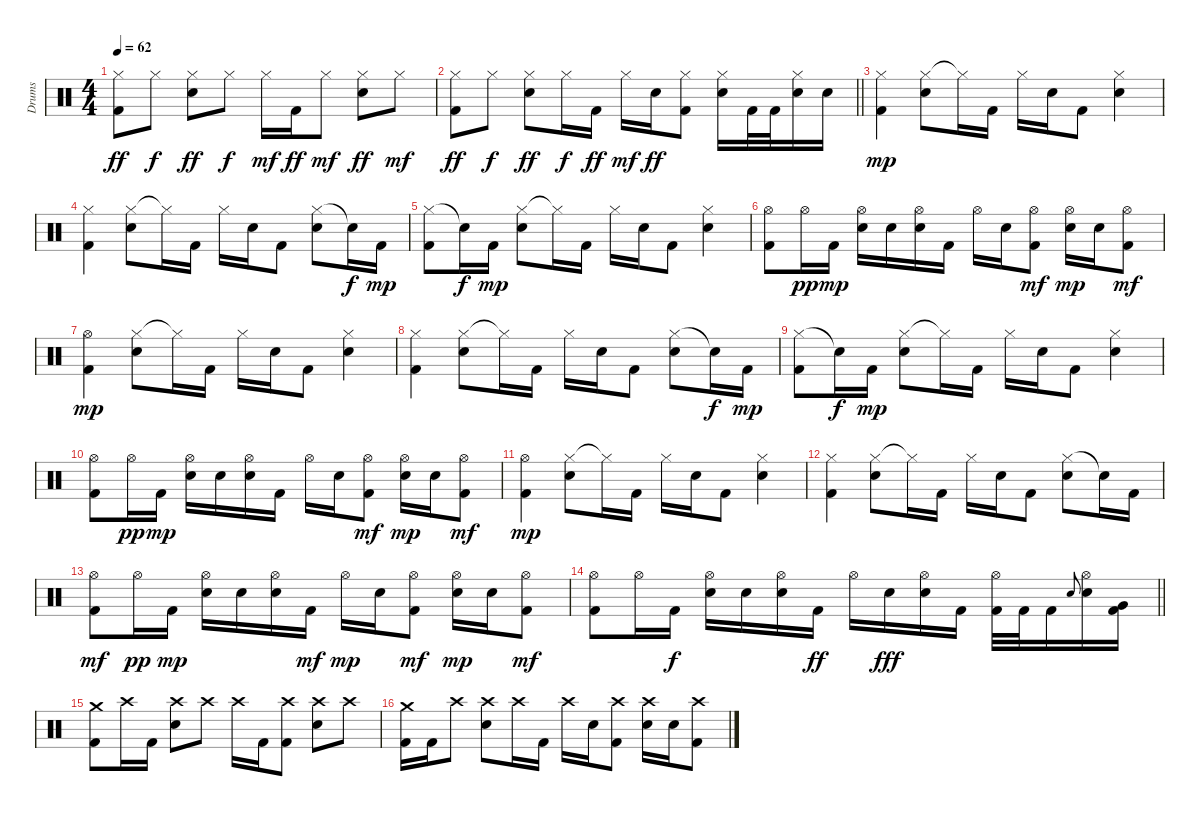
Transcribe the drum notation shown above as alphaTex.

\track ("Drums" "Drums") {instrument percussion}
\staff {score}
\articulation defaults
\ts (4 4)
\tempo 62
\clef neutral
\ks c
("Hi-Hat (closed)" "Kick (hit) 2").8{dy ff} "Hi-Hat (closed)".8{dy f} ("Hi-Hat (closed)" "Snare (hit) 2").8{dy ff} "Hi-Hat (closed)".8{dy f} "Hi-Hat (closed)".16{dy mf} "Kick (hit) 2".16{dy ff} "Hi-Hat (closed)".8{dy mf} ("Hi-Hat (closed)" "Snare (hit) 2").8{dy ff} "Hi-Hat (closed)".8{dy mf} |
\barLineRight lightlight
("Hi-Hat (closed)" "Kick (hit) 2").8{dy ff} "Hi-Hat (closed)".8{dy f} ("Hi-Hat (closed)" "Snare (hit) 2").8{dy ff} "Hi-Hat (closed)".16{dy f} "Kick (hit) 2".16{dy ff} "Hi-Hat (closed)".16{dy mf} "Snare (hit) 2".16{dy ff} ("Hi-Hat (closed)" "Kick (hit) 2").8 ("Hi-Hat (closed)" "Snare (hit) 2").16 "Kick (hit) 2".32 "Kick (hit) 2".32 ("Hi-Hat (closed)" "Snare (hit) 2").16 "Snare (hit) 2".16 |
\section ("" "")
("Hi-Hat (closed)" "Kick (hit) 2").4{dy mp} ("Hi-Hat (closed)" "Snare (hit) 2").8 "Hi-Hat (closed)"{t}.16 "Kick (hit) 2".16 "Hi-Hat (closed)".16 "Snare (hit) 2".16 "Kick (hit) 2".8 ("Hi-Hat (closed)" "Snare (hit) 2").4 |
("Hi-Hat (closed)" "Kick (hit) 2").4 ("Hi-Hat (closed)" "Snare (hit) 2").8 "Hi-Hat (closed)"{t}.16 "Kick (hit) 2".16 "Hi-Hat (closed)".16 "Snare (hit) 2".16 "Kick (hit) 2".8 ("Hi-Hat (closed)" "Snare (hit) 2").8 "Snare (hit)"{t}.16{dy f} "Kick (hit) 2".16{dy mp} |
("Hi-Hat (closed)" "Kick (hit) 2").8 "Snare (hit)"{t}.16{dy f} "Kick (hit) 2".16{dy mp} ("Hi-Hat (closed)" "Snare (hit) 2").8 "Hi-Hat (closed)"{t}.16 "Kick (hit) 2".16 "Hi-Hat (closed)".16 "Snare (hit) 2".16 "Kick (hit) 2".8 ("Hi-Hat (closed)" "Snare (hit) 2").4 |
("Hi-Hat (open)" "Kick (hit) 2").8 "Hi-Hat (open)".16{dy pp} "Kick (hit) 2".16{dy mp} ("Hi-Hat (open)" "Snare (hit) 2").16 "Snare (hit) 2".16 ("Hi-Hat (open)" "Snare (hit) 2").16 "Kick (hit) 2".16 "Hi-Hat (open)".16 "Snare (hit) 2".16 ("Hi-Hat (open)" "Kick (hit) 2").8{dy mf} ("Hi-Hat (open)" "Snare (hit) 2").16{dy mp} "Snare (hit) 2".16 ("Hi-Hat (open)" "Kick (hit) 2").8{dy mf} |
("Hi-Hat (open)" "Kick (hit) 2").4{dy mp} ("Hi-Hat (closed)" "Snare (hit) 2").8 "Hi-Hat (closed)"{t}.16 "Kick (hit) 2".16 "Hi-Hat (closed)".16 "Snare (hit) 2".16 "Kick (hit) 2".8 ("Hi-Hat (closed)" "Snare (hit) 2").4 |
("Hi-Hat (closed)" "Kick (hit) 2").4 ("Hi-Hat (closed)" "Snare (hit) 2").8 "Hi-Hat (closed)"{t}.16 "Kick (hit) 2".16 "Hi-Hat (closed)".16 "Snare (hit) 2".16 "Kick (hit) 2".8 ("Hi-Hat (closed)" "Snare (hit) 2").8 "Snare (hit)"{t}.16{dy f} "Kick (hit) 2".16{dy mp} |
("Hi-Hat (closed)" "Kick (hit) 2").8 "Snare (hit)"{t}.16{dy f} "Kick (hit) 2".16{dy mp} ("Hi-Hat (closed)" "Snare (hit) 2").8 "Hi-Hat (closed)"{t}.16 "Kick (hit) 2".16 "Hi-Hat (closed)".16 "Snare (hit) 2".16 "Kick (hit) 2".8 ("Hi-Hat (closed)" "Snare (hit) 2").4 |
("Hi-Hat (open)" "Kick (hit) 2").8 "Hi-Hat (open)".16{dy pp} "Kick (hit) 2".16{dy mp} ("Hi-Hat (open)" "Snare (hit) 2").16 "Snare (hit) 2".16 ("Hi-Hat (open)" "Snare (hit) 2").16 "Kick (hit) 2".16 "Hi-Hat (open)".16 "Snare (hit) 2".16 ("Hi-Hat (open)" "Kick (hit) 2").8{dy mf} ("Hi-Hat (open)" "Snare (hit) 2").16{dy mp} "Snare (hit) 2".16 ("Hi-Hat (open)" "Kick (hit) 2").8{dy mf} |
("Hi-Hat (open)" "Kick (hit) 2").4{dy mp} ("Hi-Hat (closed)" "Snare (hit) 2").8 "Hi-Hat (closed)"{t}.16 "Kick (hit) 2".16 "Hi-Hat (closed)".16 "Snare (hit) 2".16 "Kick (hit) 2".8 ("Hi-Hat (closed)" "Snare (hit) 2").4 |
("Hi-Hat (closed)" "Kick (hit) 2").4 ("Hi-Hat (closed)" "Snare (hit) 2").8 "Hi-Hat (closed)"{t}.16 "Kick (hit) 2".16 "Hi-Hat (closed)".16 "Snare (hit) 2".16 "Kick (hit) 2".8 ("Hi-Hat (closed)" "Snare (hit) 2").8 "Snare (hit)"{t}.16 "Kick (hit) 2".16 |
("Hi-Hat (open)" "Kick (hit) 2").8{dy mf} "Hi-Hat (open)".16{dy pp} "Kick (hit) 2".16{dy mp} ("Hi-Hat (open)" "Snare (hit) 2").16 "Snare (hit) 2".16 ("Hi-Hat (open)" "Snare (hit) 2").16 "Kick (hit) 2".16{dy mf} "Hi-Hat (open)".16{dy mp} "Snare (hit) 2".16 ("Hi-Hat (open)" "Kick (hit) 2").8{dy mf} ("Hi-Hat (open)" "Snare (hit) 2").16{dy mp} "Snare (hit) 2".16 ("Hi-Hat (open)" "Kick (hit) 2").8{dy mf} |
\barLineRight lightlight
("Hi-Hat (open)" "Kick (hit) 2").8 "Hi-Hat (open)".16 "Kick (hit) 2".16{dy f} ("Hi-Hat (open)" "Snare (hit) 2").16 "Snare (hit) 2".16 ("Hi-Hat (open)" "Snare (hit) 2").16 "Kick (hit) 2".16{dy ff} "Hi-Hat (open)".16 "Snare (hit) 2".16{dy fff} ("Hi-Hat (open)" "Snare (hit) 2").16 "Kick (hit) 2".16 ("Hi-Hat (open)" "Kick (hit) 2").32 "Kick (hit) 2".32 "Kick (hit) 2".16 "Snare (hit) 2".8{gr onbeat} ("Hi-Hat (open)" "Snare (hit) 2").16 ("Very Low Tom (hit)" "Kick (hit) 2").16 |
\section ("" "")
("Crash medium (hit)" "Kick (hit) 2").8 "Crash high (hit)".16 "Kick (hit) 2".16 ("Crash high (hit)" "Snare (hit) 2").8 "Crash high (hit)".8 "Crash high (hit)".16 "Kick (hit) 2".16 ("Crash high (hit)" "Kick (hit) 2").8 ("Crash high (hit)" "Snare (hit) 2").8 "Crash high (hit)".8 |
("Crash medium (hit)" "Kick (hit) 2").16 "Kick (hit) 2".16 "Crash high (hit)".8 ("Crash high (hit)" "Snare (hit) 2").8 "Crash high (hit)".16 "Kick (hit) 2".16 "Crash high (hit)".16 "Snare (hit) 2".16 ("Crash high (hit)" "Kick (hit) 2").8 ("Crash high (hit)" "Snare (hit) 2").16 "Snare (hit) 2".16 ("Crash high (hit)" "Kick (hit) 2").8
